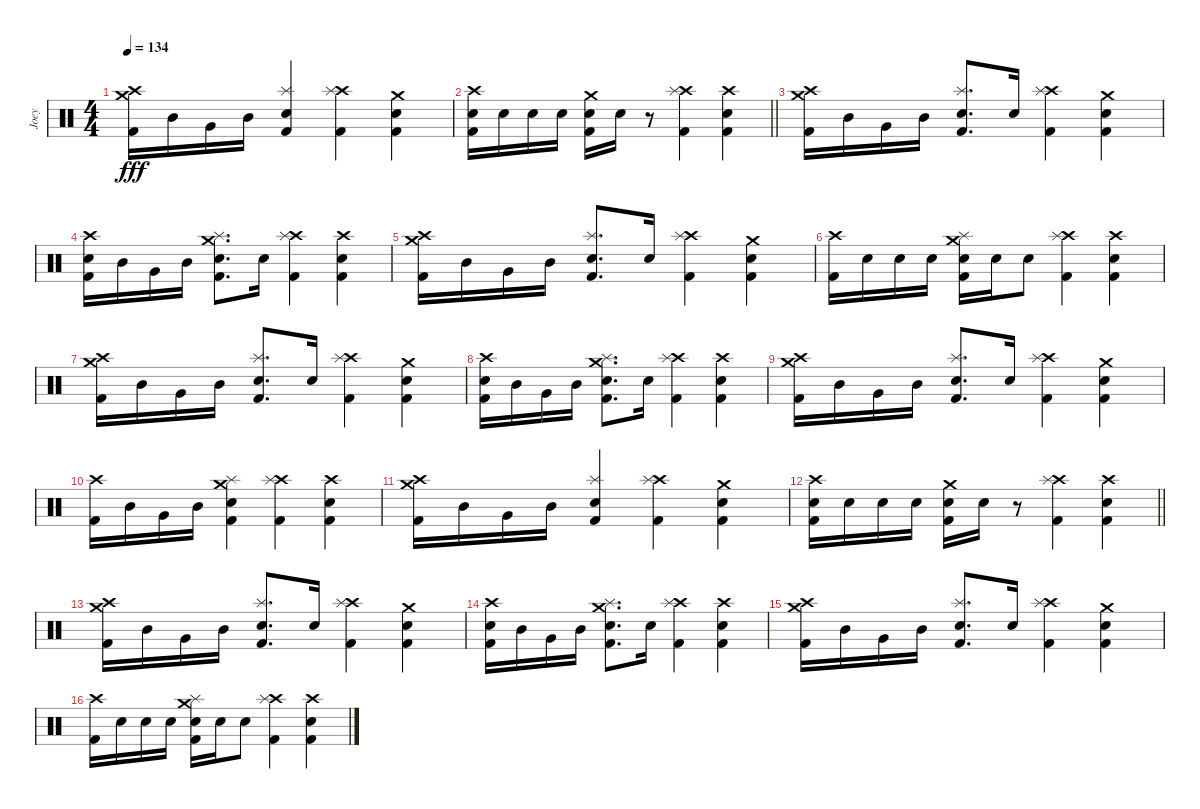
\track ("Joey" "Joey") {instrument percussion}
\staff {score}
\articulation defaults
\ts (4 4)
\tempo 134
\clef neutral
\ks c
("Crash high (hit)" "Crash medium (hit)" "Kick (hit) 2").16{dy fff} "Mid Tom (hit)".16 "Very Low Tom (hit)".16 "Mid Tom (hit)".16 ("Splash (hit)" "Electric Snare (hit)" "Kick (hit) 2").4 ("Crash high (hit)" "Splash (hit)" "Kick (hit) 2").4 ("Crash medium (hit)" "Electric Snare (hit)" "Kick (hit) 2").4 |
\barLineRight lightlight
("Crash high (hit)" "Electric Snare (hit)" "Kick (hit) 2").16 "Electric Snare (hit)".16 "Electric Snare (hit)".16 "Electric Snare (hit)".16 ("Crash medium (hit)" "Electric Snare (hit)" "Kick (hit) 2").16 "Electric Snare (hit)".16 r.8 ("Crash high (hit)" "Splash (hit)" "Kick (hit) 2").4 ("Crash high (hit)" "Electric Snare (hit)" "Kick (hit) 2").4 |
\section ("" "")
("Crash high (hit)" "Crash medium (hit)" "Kick (hit) 2").16 "Mid Tom (hit)".16 "Very Low Tom (hit)".16 "Mid Tom (hit)".16 ("Splash (hit)" "Electric Snare (hit)" "Kick (hit) 2").8{d} "Electric Snare (hit)".16 ("Crash high (hit)" "Splash (hit)" "Kick (hit) 2").4 ("Crash medium (hit)" "Electric Snare (hit)" "Kick (hit) 2").4 |
("Crash high (hit)" "Electric Snare (hit)" "Kick (hit) 2").16 "Mid Tom (hit)".16 "Very Low Tom (hit)".16 "Mid Tom (hit)".16 ("Crash medium (hit)" "Splash (hit)" "Electric Snare (hit)" "Kick (hit) 2").8{d} "Electric Snare (hit)".16 ("Crash high (hit)" "Splash (hit)" "Kick (hit) 2").4 ("Crash high (hit)" "Electric Snare (hit)" "Kick (hit) 2").4 |
("Crash high (hit)" "Crash medium (hit)" "Kick (hit) 2").16 "Mid Tom (hit)".16 "Very Low Tom (hit)".16 "Mid Tom (hit)".16 ("Splash (hit)" "Electric Snare (hit)" "Kick (hit) 2").8{d} "Electric Snare (hit)".16 ("Crash high (hit)" "Splash (hit)" "Kick (hit) 2").4 ("Crash medium (hit)" "Electric Snare (hit)" "Kick (hit) 2").4 |
("Crash high (hit)" "Kick (hit) 2").16 "Electric Snare (hit)".16 "Electric Snare (hit)".16 "Electric Snare (hit)".16 ("Crash medium (hit)" "Splash (hit)" "Electric Snare (hit)" "Kick (hit) 2").16 "Electric Snare (hit)".16 "Electric Snare (hit)".8 ("Crash high (hit)" "Splash (hit)" "Kick (hit) 2").4 ("Crash high (hit)" "Electric Snare (hit)" "Kick (hit) 2").4 |
("Crash high (hit)" "Crash medium (hit)" "Kick (hit) 2").16 "Mid Tom (hit)".16 "Very Low Tom (hit)".16 "Mid Tom (hit)".16 ("Splash (hit)" "Electric Snare (hit)" "Kick (hit) 2").8{d} "Electric Snare (hit)".16 ("Crash high (hit)" "Splash (hit)" "Kick (hit) 2").4 ("Crash medium (hit)" "Electric Snare (hit)" "Kick (hit) 2").4 |
("Crash high (hit)" "Electric Snare (hit)" "Kick (hit) 2").16 "Mid Tom (hit)".16 "Very Low Tom (hit)".16 "Mid Tom (hit)".16 ("Crash medium (hit)" "Splash (hit)" "Electric Snare (hit)" "Kick (hit) 2").8{d} "Electric Snare (hit)".16 ("Crash high (hit)" "Splash (hit)" "Kick (hit) 2").4 ("Crash high (hit)" "Electric Snare (hit)" "Kick (hit) 2").4 |
("Crash high (hit)" "Crash medium (hit)" "Kick (hit) 2").16 "Mid Tom (hit)".16 "Very Low Tom (hit)".16 "Mid Tom (hit)".16 ("Splash (hit)" "Electric Snare (hit)" "Kick (hit) 2").8{d} "Electric Snare (hit)".16 ("Crash high (hit)" "Splash (hit)" "Kick (hit) 2").4 ("Crash medium (hit)" "Electric Snare (hit)" "Kick (hit) 2").4 |
("Crash high (hit)" "Kick (hit) 2").16 "Mid Tom (hit)".16 "Very Low Tom (hit)".16 "Mid Tom (hit)".16 ("Crash medium (hit)" "Splash (hit)" "Electric Snare (hit)" "Kick (hit) 2").4 ("Crash high (hit)" "Splash (hit)" "Kick (hit) 2").4 ("Crash high (hit)" "Electric Snare (hit)" "Kick (hit) 2").4 |
("Crash high (hit)" "Crash medium (hit)" "Kick (hit) 2").16 "Mid Tom (hit)".16 "Very Low Tom (hit)".16 "Mid Tom (hit)".16 ("Splash (hit)" "Electric Snare (hit)" "Kick (hit) 2").4 ("Crash high (hit)" "Splash (hit)" "Kick (hit) 2").4 ("Crash medium (hit)" "Electric Snare (hit)" "Kick (hit) 2").4 |
\barLineRight lightlight
("Crash high (hit)" "Electric Snare (hit)" "Kick (hit) 2").16 "Electric Snare (hit)".16 "Electric Snare (hit)".16 "Electric Snare (hit)".16 ("Crash medium (hit)" "Electric Snare (hit)" "Kick (hit) 2").16 "Electric Snare (hit)".16 r.8 ("Crash high (hit)" "Splash (hit)" "Kick (hit) 2").4 ("Crash high (hit)" "Electric Snare (hit)" "Kick (hit) 2").4 |
\section ("" "")
("Crash high (hit)" "Crash medium (hit)" "Kick (hit) 2").16 "Mid Tom (hit)".16 "Very Low Tom (hit)".16 "Mid Tom (hit)".16 ("Splash (hit)" "Electric Snare (hit)" "Kick (hit) 2").8{d} "Electric Snare (hit)".16 ("Crash high (hit)" "Splash (hit)" "Kick (hit) 2").4 ("Crash medium (hit)" "Electric Snare (hit)" "Kick (hit) 2").4 |
("Crash high (hit)" "Electric Snare (hit)" "Kick (hit) 2").16 "Mid Tom (hit)".16 "Very Low Tom (hit)".16 "Mid Tom (hit)".16 ("Crash medium (hit)" "Splash (hit)" "Electric Snare (hit)" "Kick (hit) 2").8{d} "Electric Snare (hit)".16 ("Crash high (hit)" "Splash (hit)" "Kick (hit) 2").4 ("Crash high (hit)" "Electric Snare (hit)" "Kick (hit) 2").4 |
("Crash high (hit)" "Crash medium (hit)" "Kick (hit) 2").16 "Mid Tom (hit)".16 "Very Low Tom (hit)".16 "Mid Tom (hit)".16 ("Splash (hit)" "Electric Snare (hit)" "Kick (hit) 2").8{d} "Electric Snare (hit)".16 ("Crash high (hit)" "Splash (hit)" "Kick (hit) 2").4 ("Crash medium (hit)" "Electric Snare (hit)" "Kick (hit) 2").4 |
("Crash high (hit)" "Kick (hit) 2").16 "Electric Snare (hit)".16 "Electric Snare (hit)".16 "Electric Snare (hit)".16 ("Crash medium (hit)" "Splash (hit)" "Electric Snare (hit)" "Kick (hit) 2").16 "Electric Snare (hit)".16 "Electric Snare (hit)".8 ("Crash high (hit)" "Splash (hit)" "Kick (hit) 2").4 ("Crash high (hit)" "Electric Snare (hit)" "Kick (hit) 2").4
